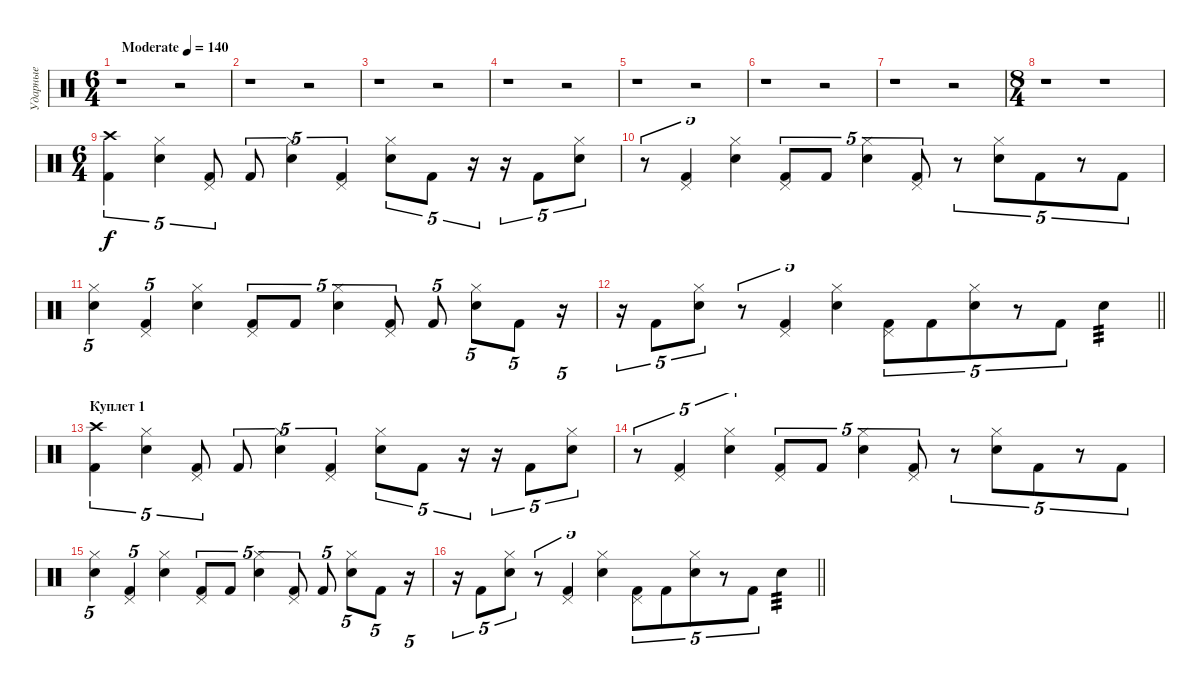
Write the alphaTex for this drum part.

\track ("Ударные" "Ударные") {instrument percussion}
\staff {score}
\articulation defaults
\ts (6 4)
\tempo (140 "Moderate")
\clef neutral
\ks c
r.1{dy f} r.2 |
r.1 r.2 |
r.1 r.2 |
r.1 r.2 |
r.1 r.2 |
r.1 r.2 |
r.1 r.2 |
\ts (8 4)
r.1 r.1 |
\ts (6 4)
("Crash high (hit)" "Kick (hit) 2").4{tu (5 4)} ("Hi-Hat (closed)" "Snare (hit) 2").4{tu (5 4)} ("Pedal Hi-Hat (hit)" "Kick (hit) 2").8{tu (5 4)} "Kick (hit) 2".8{tu (5 4)} ("Hi-Hat (closed)" "Snare (hit) 2").4{tu (5 4)} ("Pedal Hi-Hat (hit)" "Kick (hit) 2").4{tu (5 4)} ("Hi-Hat (closed)" "Snare (hit) 2").8{tu (5 4)} "Kick (hit) 2".8{tu (5 4)} r.16{tu (5 4)} r.16{tu (5 4)} "Kick (hit) 2".8{tu (5 4)} ("Hi-Hat (closed)" "Snare (hit) 2").8{tu (5 4)} |
r.8{tu (5 4)} ("Pedal Hi-Hat (hit)" "Kick (hit) 2").4{tu (5 4)} ("Hi-Hat (closed)" "Snare (hit) 2").4{tu (5 4)} ("Pedal Hi-Hat (hit)" "Kick (hit) 2").8{tu (5 4)} "Kick (hit) 2".8{tu (5 4)} ("Hi-Hat (closed)" "Snare (hit) 2").4{tu (5 4)} ("Pedal Hi-Hat (hit)" "Kick (hit) 2").8{tu (5 4)} r.8{tu (5 4)} ("Hi-Hat (closed)" "Snare (hit) 2").8{tu (5 4)} "Kick (hit) 2".8{tu (5 4)} r.8{tu (5 4)} "Kick (hit) 2".8{tu (5 4)} |
("Hi-Hat (closed)" "Snare (hit) 2").4{tu (5 4)} ("Pedal Hi-Hat (hit)" "Kick (hit) 2").4{tu (5 4)} ("Hi-Hat (closed)" "Snare (hit) 2").4 ("Pedal Hi-Hat (hit)" "Kick (hit) 2").8{tu (5 4)} "Kick (hit) 2".8{tu (5 4)} ("Hi-Hat (closed)" "Snare (hit) 2").4{tu (5 4)} ("Pedal Hi-Hat (hit)" "Kick (hit) 2").8{tu (5 4)} "Kick (hit) 2".8{tu (5 4)} ("Hi-Hat (closed)" "Snare (hit) 2").8{tu (5 4)} "Kick (hit) 2".8{tu (5 4)} r.16{tu (5 4)} |
\barLineRight lightlight
r.16{tu (5 4)} "Kick (hit) 2".8{tu (5 4)} ("Hi-Hat (closed)" "Snare (hit) 2").8{tu (5 4)} r.8{tu (5 4)} ("Pedal Hi-Hat (hit)" "Kick (hit) 2").4{tu (5 4)} ("Hi-Hat (closed)" "Snare (hit) 2").4{tu (5 4)} ("Pedal Hi-Hat (hit)" "Kick (hit) 2").8{tu (5 4)} "Kick (hit) 2".8{tu (5 4)} ("Hi-Hat (closed)" "Snare (hit) 2").8{tu (5 4)} r.8{tu (5 4)} "Kick (hit) 2".8{tu (5 4)} "Snare (hit) 2".4{tp 3} |
\section ("" "Куплет 1")
("Crash high (hit)" "Kick (hit) 2").4{tu (5 4)} ("Hi-Hat (closed)" "Snare (hit) 2").4{tu (5 4)} ("Pedal Hi-Hat (hit)" "Kick (hit) 2").8{tu (5 4)} "Kick (hit) 2".8{tu (5 4)} ("Hi-Hat (closed)" "Snare (hit) 2").4{tu (5 4)} ("Pedal Hi-Hat (hit)" "Kick (hit) 2").4{tu (5 4)} ("Hi-Hat (closed)" "Snare (hit) 2").8{tu (5 4)} "Kick (hit) 2".8{tu (5 4)} r.16{tu (5 4)} r.16{tu (5 4)} "Kick (hit) 2".8{tu (5 4)} ("Hi-Hat (closed)" "Snare (hit) 2").8{tu (5 4)} |
r.8{tu (5 4)} ("Pedal Hi-Hat (hit)" "Kick (hit) 2").4{tu (5 4)} ("Hi-Hat (closed)" "Snare (hit) 2").4{tu (5 4)} ("Pedal Hi-Hat (hit)" "Kick (hit) 2").8{tu (5 4)} "Kick (hit) 2".8{tu (5 4)} ("Hi-Hat (closed)" "Snare (hit) 2").4{tu (5 4)} ("Pedal Hi-Hat (hit)" "Kick (hit) 2").8{tu (5 4)} r.8{tu (5 4)} ("Hi-Hat (closed)" "Snare (hit) 2").8{tu (5 4)} "Kick (hit) 2".8{tu (5 4)} r.8{tu (5 4)} "Kick (hit) 2".8{tu (5 4)} |
("Hi-Hat (closed)" "Snare (hit) 2").4{tu (5 4)} ("Pedal Hi-Hat (hit)" "Kick (hit) 2").4{tu (5 4)} ("Hi-Hat (closed)" "Snare (hit) 2").4 ("Pedal Hi-Hat (hit)" "Kick (hit) 2").8{tu (5 4)} "Kick (hit) 2".8{tu (5 4)} ("Hi-Hat (closed)" "Snare (hit) 2").4{tu (5 4)} ("Pedal Hi-Hat (hit)" "Kick (hit) 2").8{tu (5 4)} "Kick (hit) 2".8{tu (5 4)} ("Hi-Hat (closed)" "Snare (hit) 2").8{tu (5 4)} "Kick (hit) 2".8{tu (5 4)} r.16{tu (5 4)} |
\barLineRight lightlight
r.16{tu (5 4)} "Kick (hit) 2".8{tu (5 4)} ("Hi-Hat (closed)" "Snare (hit) 2").8{tu (5 4)} r.8{tu (5 4)} ("Pedal Hi-Hat (hit)" "Kick (hit) 2").4{tu (5 4)} ("Hi-Hat (closed)" "Snare (hit) 2").4{tu (5 4)} ("Pedal Hi-Hat (hit)" "Kick (hit) 2").8{tu (5 4)} "Kick (hit) 2".8{tu (5 4)} ("Hi-Hat (closed)" "Snare (hit) 2").8{tu (5 4)} r.8{tu (5 4)} "Kick (hit) 2".8{tu (5 4)} "Snare (hit) 2".4{tp 3}
